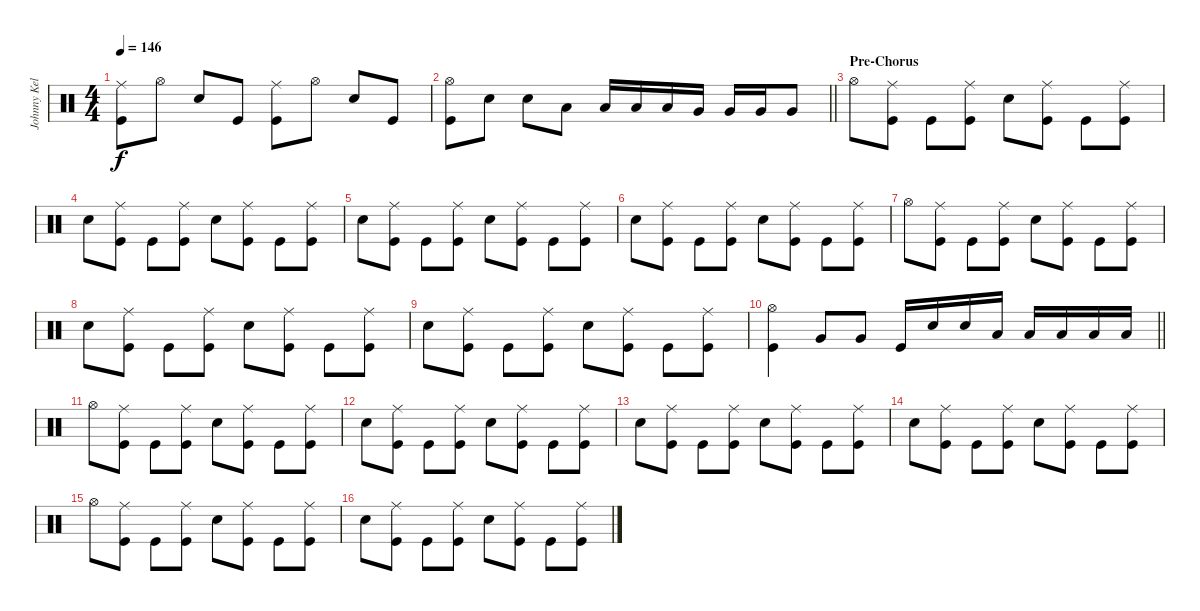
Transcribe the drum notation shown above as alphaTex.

\track ("Johnny Kelly" "Johnny Kel") {instrument percussion}
\staff {score}
\articulation defaults
\ts (4 4)
\tempo 146
\clef neutral
\ks c
("Kick (hit)" "Ride (middle)").8{dy f} "Hi-Hat (open)".8 "Snare (hit) 2".8 "Kick (hit)".8 ("Kick (hit)" "Ride (middle)").8 "Hi-Hat (open)".8 "Snare (hit) 2".8 "Kick (hit)".8 |
\barLineRight lightlight
("Kick (hit)" "Hi-Hat (open)").8 "Snare (hit) 2".8 "Snare (hit) 2".8 "Low Tom (hit)".8 "Low Tom (hit)".16 "Low Tom (hit)".16 "Low Tom (hit)".16 "Very Low Tom (hit)".16 "Very Low Tom (hit)".16 "Very Low Tom (hit)".16 "Very Low Tom (hit)".8 |
\section ("" "Pre-Chorus")
"Hi-Hat (open)".8 ("Kick (hit)" "Ride (middle)").8 "Kick (hit)".8 ("Kick (hit)" "Ride (middle)").8 "Snare (hit) 2".8 ("Kick (hit)" "Ride (middle)").8 "Kick (hit)".8 ("Kick (hit)" "Ride (middle)").8 |
"Snare (hit) 2".8 ("Kick (hit)" "Ride (middle)").8 "Kick (hit)".8 ("Kick (hit)" "Ride (middle)").8 "Snare (hit) 2".8 ("Kick (hit)" "Ride (middle)").8 "Kick (hit)".8 ("Kick (hit)" "Ride (middle)").8 |
"Snare (hit) 2".8 ("Kick (hit)" "Ride (middle)").8 "Kick (hit)".8 ("Kick (hit)" "Ride (middle)").8 "Snare (hit) 2".8 ("Kick (hit)" "Ride (middle)").8 "Kick (hit)".8 ("Kick (hit)" "Ride (middle)").8 |
"Snare (hit) 2".8 ("Kick (hit)" "Ride (middle)").8 "Kick (hit)".8 ("Kick (hit)" "Ride (middle)").8 "Snare (hit) 2".8 ("Kick (hit)" "Ride (middle)").8 "Kick (hit)".8 ("Kick (hit)" "Ride (middle)").8 |
"Hi-Hat (open)".8 ("Kick (hit)" "Ride (middle)").8 "Kick (hit)".8 ("Kick (hit)" "Ride (middle)").8 "Snare (hit) 2".8 ("Kick (hit)" "Ride (middle)").8 "Kick (hit)".8 ("Kick (hit)" "Ride (middle)").8 |
"Snare (hit) 2".8 ("Kick (hit)" "Ride (middle)").8 "Kick (hit)".8 ("Kick (hit)" "Ride (middle)").8 "Snare (hit) 2".8 ("Kick (hit)" "Ride (middle)").8 "Kick (hit)".8 ("Kick (hit)" "Ride (middle)").8 |
"Snare (hit) 2".8 ("Kick (hit)" "Ride (middle)").8 "Kick (hit)".8 ("Kick (hit)" "Ride (middle)").8 "Snare (hit) 2".8 ("Kick (hit)" "Ride (middle)").8 "Kick (hit)".8 ("Kick (hit)" "Ride (middle)").8 |
\barLineRight lightlight
("Kick (hit)" "Hi-Hat (open)").4 "Very Low Tom (hit)".8 "Very Low Tom (hit)".8 "Kick (hit)".16 "Snare (hit) 2".16 "Snare (hit) 2".16 "Low Tom (hit)".16 "Low Tom (hit)".16 "Low Tom (hit)".16 "Low Tom (hit)".16 "Low Tom (hit)".16 |
"Hi-Hat (open)".8 ("Kick (hit)" "Ride (middle)").8 "Kick (hit)".8 ("Kick (hit)" "Ride (middle)").8 "Snare (hit) 2".8 ("Kick (hit)" "Ride (middle)").8 "Kick (hit)".8 ("Kick (hit)" "Ride (middle)").8 |
"Snare (hit) 2".8 ("Kick (hit)" "Ride (middle)").8 "Kick (hit)".8 ("Kick (hit)" "Ride (middle)").8 "Snare (hit) 2".8 ("Kick (hit)" "Ride (middle)").8 "Kick (hit)".8 ("Kick (hit)" "Ride (middle)").8 |
"Snare (hit) 2".8 ("Kick (hit)" "Ride (middle)").8 "Kick (hit)".8 ("Kick (hit)" "Ride (middle)").8 "Snare (hit) 2".8 ("Kick (hit)" "Ride (middle)").8 "Kick (hit)".8 ("Kick (hit)" "Ride (middle)").8 |
"Snare (hit) 2".8 ("Kick (hit)" "Ride (middle)").8 "Kick (hit)".8 ("Kick (hit)" "Ride (middle)").8 "Snare (hit) 2".8 ("Kick (hit)" "Ride (middle)").8 "Kick (hit)".8 ("Kick (hit)" "Ride (middle)").8 |
"Hi-Hat (open)".8 ("Kick (hit)" "Ride (middle)").8 "Kick (hit)".8 ("Kick (hit)" "Ride (middle)").8 "Snare (hit) 2".8 ("Kick (hit)" "Ride (middle)").8 "Kick (hit)".8 ("Kick (hit)" "Ride (middle)").8 |
"Snare (hit) 2".8 ("Kick (hit)" "Ride (middle)").8 "Kick (hit)".8 ("Kick (hit)" "Ride (middle)").8 "Snare (hit) 2".8 ("Kick (hit)" "Ride (middle)").8 "Kick (hit)".8 ("Kick (hit)" "Ride (middle)").8
